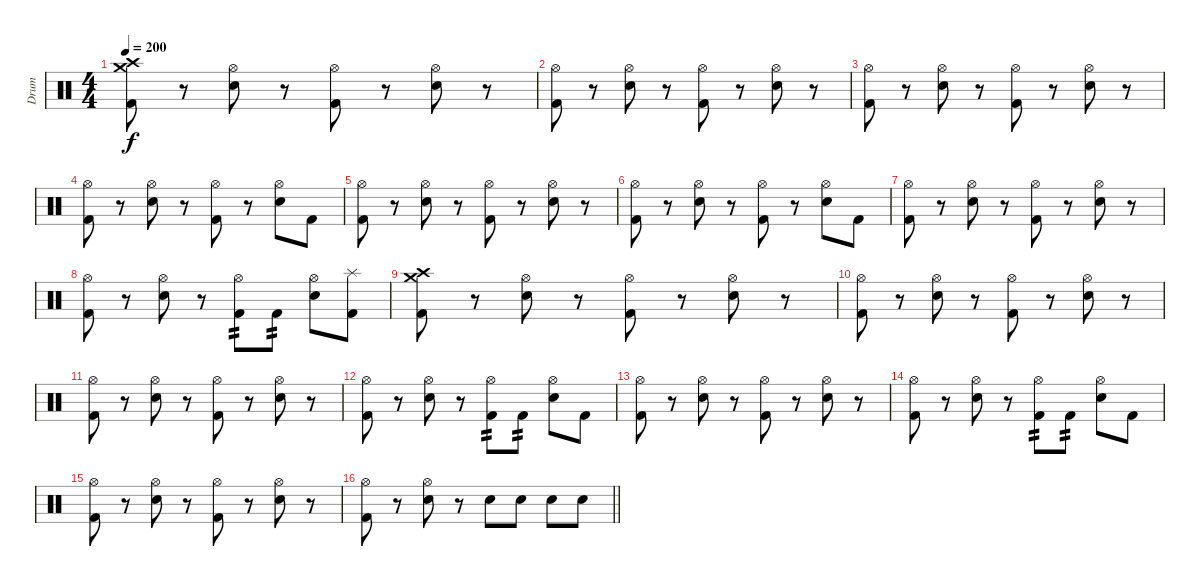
\track ("Drum" "Drum") {instrument percussion}
\staff {score}
\articulation defaults
\ts (4 4)
\tempo 200
\clef neutral
\ks c
("Crash high (hit)" "Crash medium (hit)" "Kick (hit) 2").8{dy f} r.8 ("Hi-Hat (open)" "Snare (hit) 2").8 r.8 ("Hi-Hat (open)" "Kick (hit) 2").8 r.8 ("Hi-Hat (open)" "Snare (hit) 2").8 r.8 |
("Hi-Hat (open)" "Kick (hit) 2").8 r.8 ("Hi-Hat (open)" "Snare (hit) 2").8 r.8 ("Hi-Hat (open)" "Kick (hit) 2").8 r.8 ("Hi-Hat (open)" "Snare (hit) 2").8 r.8 |
("Hi-Hat (open)" "Kick (hit) 2").8 r.8 ("Hi-Hat (open)" "Snare (hit) 2").8 r.8 ("Hi-Hat (open)" "Kick (hit) 2").8 r.8 ("Hi-Hat (open)" "Snare (hit) 2").8 r.8 |
("Hi-Hat (open)" "Kick (hit) 2").8 r.8 ("Hi-Hat (open)" "Snare (hit) 2").8 r.8 ("Hi-Hat (open)" "Kick (hit) 2").8 r.8 ("Hi-Hat (open)" "Snare (hit) 2").8 "Kick (hit) 2".8 |
("Hi-Hat (open)" "Kick (hit) 2").8 r.8 ("Hi-Hat (open)" "Snare (hit) 2").8 r.8 ("Hi-Hat (open)" "Kick (hit) 2").8 r.8 ("Hi-Hat (open)" "Snare (hit) 2").8 r.8 |
("Hi-Hat (open)" "Kick (hit) 2").8 r.8 ("Hi-Hat (open)" "Snare (hit) 2").8 r.8 ("Hi-Hat (open)" "Kick (hit) 2").8 r.8 ("Hi-Hat (open)" "Snare (hit) 2").8 "Kick (hit) 2".8 |
("Hi-Hat (open)" "Kick (hit) 2").8 r.8 ("Hi-Hat (open)" "Snare (hit) 2").8 r.8 ("Hi-Hat (open)" "Kick (hit) 2").8 r.8 ("Hi-Hat (open)" "Snare (hit) 2").8 r.8 |
("Hi-Hat (open)" "Kick (hit) 2").8 r.8 ("Hi-Hat (open)" "Snare (hit) 2").8 r.8 ("Hi-Hat (open)" "Kick (hit) 2").8{tp 2} "Kick (hit) 2".8{tp 2} ("Hi-Hat (open)" "Snare (hit) 2").8 ("Splash (hit)" "Kick (hit) 2").8 |
("Crash high (hit)" "Crash medium (hit)" "Kick (hit) 2").8 r.8 ("Hi-Hat (open)" "Snare (hit) 2").8 r.8 ("Hi-Hat (open)" "Kick (hit) 2").8 r.8 ("Hi-Hat (open)" "Snare (hit) 2").8 r.8 |
("Hi-Hat (open)" "Kick (hit) 2").8 r.8 ("Hi-Hat (open)" "Snare (hit) 2").8 r.8 ("Hi-Hat (open)" "Kick (hit) 2").8 r.8 ("Hi-Hat (open)" "Snare (hit) 2").8 r.8 |
("Hi-Hat (open)" "Kick (hit) 2").8 r.8 ("Hi-Hat (open)" "Snare (hit) 2").8 r.8 ("Hi-Hat (open)" "Kick (hit) 2").8 r.8 ("Hi-Hat (open)" "Snare (hit) 2").8 r.8 |
("Hi-Hat (open)" "Kick (hit) 2").8 r.8 ("Hi-Hat (open)" "Snare (hit) 2").8 r.8 ("Hi-Hat (open)" "Kick (hit) 2").8{tp 2} "Kick (hit) 2".8{tp 2} ("Hi-Hat (open)" "Snare (hit) 2").8 "Kick (hit) 2".8 |
("Hi-Hat (open)" "Kick (hit) 2").8 r.8 ("Hi-Hat (open)" "Snare (hit) 2").8 r.8 ("Hi-Hat (open)" "Kick (hit) 2").8 r.8 ("Hi-Hat (open)" "Snare (hit) 2").8 r.8 |
("Hi-Hat (open)" "Kick (hit) 2").8 r.8 ("Hi-Hat (open)" "Snare (hit) 2").8 r.8 ("Hi-Hat (open)" "Kick (hit) 2").8{tp 2} "Kick (hit) 2".8{tp 2} ("Hi-Hat (open)" "Snare (hit) 2").8 "Kick (hit) 2".8 |
("Hi-Hat (open)" "Kick (hit) 2").8 r.8 ("Hi-Hat (open)" "Snare (hit) 2").8 r.8 ("Hi-Hat (open)" "Kick (hit) 2").8 r.8 ("Hi-Hat (open)" "Snare (hit) 2").8 r.8 |
\barLineRight lightlight
("Hi-Hat (open)" "Kick (hit) 2").8 r.8 ("Hi-Hat (open)" "Snare (hit) 2").8 r.8 "Snare (hit) 2".8 "Snare (hit) 2".8 "Snare (hit) 2".8 "Snare (hit) 2".8
